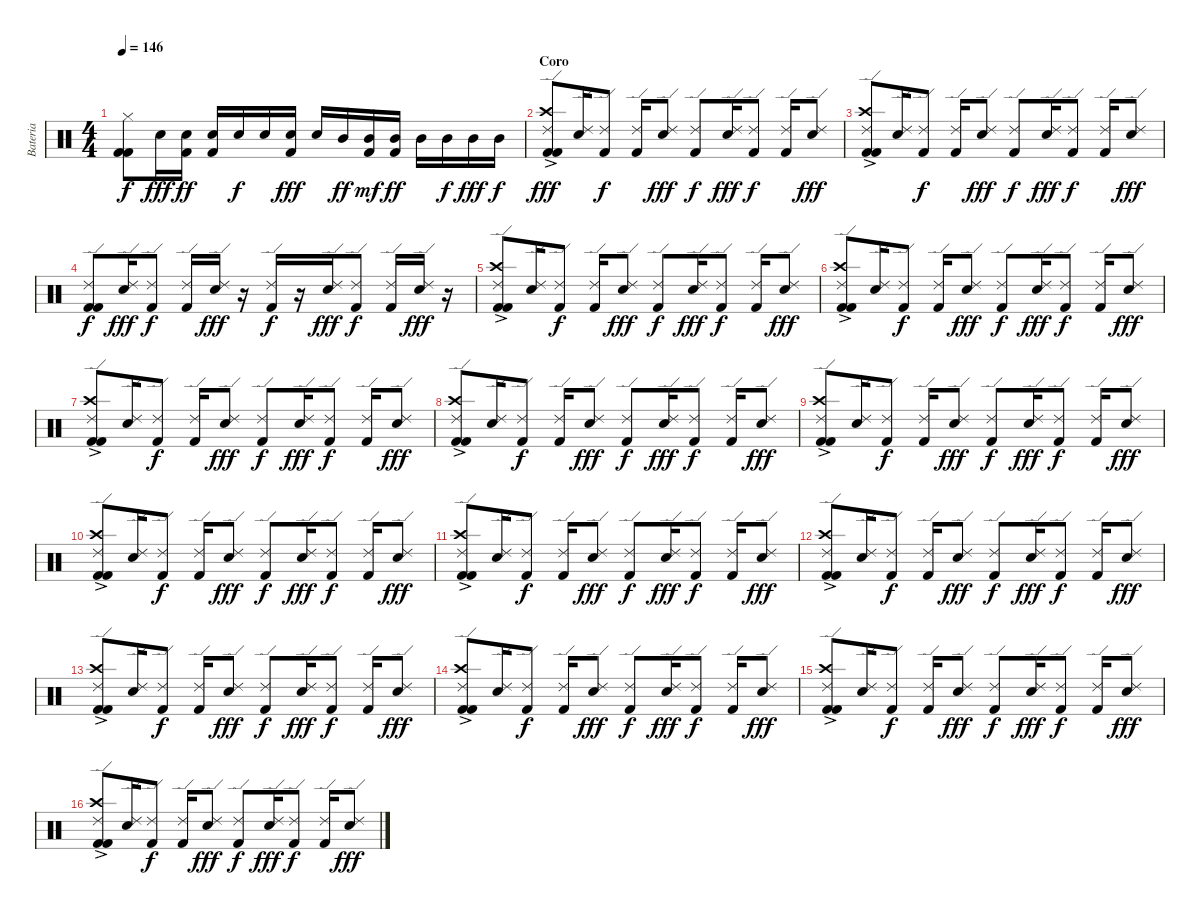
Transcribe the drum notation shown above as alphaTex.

\track ("Bateria" "Bateria") {instrument percussion}
\staff {score}
\articulation defaults
\ts (4 4)
\tempo 146
\clef neutral
\ks c
("Hi-Hat (closed)" "Kick (hit) 2" "Kick (hit) 2").8{dy f} "Electric Snare (hit)".16{dy fff} ("Electric Snare (hit)" "Kick (hit) 2").16{dy ff} ("Electric Snare (hit)" "Kick (hit) 2").16 "Electric Snare (hit)".16{dy f} "Electric Snare (hit)".16 ("Electric Snare (hit)" "Kick (hit) 2").16{dy fff} "Electric Snare (hit)".16 "Mid Tom (hit)".16{dy ff} ("Mid Tom (hit)" "Kick (hit) 2").16{dy mf} ("Mid Tom (hit)" "Kick (hit) 2").16{dy ff} "Mid Tom (hit)".16 "Mid Tom (hit)".16{dy f} "Mid Tom (hit)".16{dy fff} "Mid Tom (hit)".16{dy f} |
\section ("" "Coro")
("Crash high (hit)"{ac} "Ride (edge) 2" "Kick (hit) 2" "Kick (hit) 2").8{dy fff} ("Ride (edge) 2" "Electric Snare (hit)").16 ("Ride (edge) 2" "Kick (hit) 2").8{dy f} ("Ride (edge) 2" "Kick (hit) 2").16 ("Ride (edge) 2" "Electric Snare (hit)").8{dy fff} ("Ride (edge) 2" "Kick (hit) 2").8{dy f} ("Ride (edge) 2" "Electric Snare (hit)").16{dy fff} ("Ride (edge) 2" "Kick (hit) 2").8{dy f} ("Ride (edge) 2" "Kick (hit) 2").16 ("Ride (edge) 2" "Electric Snare (hit)").8{dy fff} |
("Crash high (hit)"{ac} "Ride (edge) 2" "Kick (hit) 2" "Kick (hit) 2").8 ("Ride (edge) 2" "Electric Snare (hit)").16 ("Ride (edge) 2" "Kick (hit) 2").8{dy f} ("Ride (edge) 2" "Kick (hit) 2").16 ("Ride (edge) 2" "Electric Snare (hit)").8{dy fff} ("Ride (edge) 2" "Kick (hit) 2").8{dy f} ("Ride (edge) 2" "Electric Snare (hit)").16{dy fff} ("Ride (edge) 2" "Kick (hit) 2").8{dy f} ("Ride (edge) 2" "Kick (hit) 2").16 ("Ride (edge) 2" "Electric Snare (hit)").8{dy fff} |
("Ride (edge) 2" "Kick (hit) 2" "Kick (hit) 2").8{dy f} ("Ride (edge) 2" "Electric Snare (hit)").16{dy fff} ("Ride (edge) 2" "Kick (hit) 2").8{dy f} ("Ride (edge) 2" "Kick (hit) 2").16 ("Ride (edge) 2" "Electric Snare (hit)").16{dy fff} r.16 ("Ride (edge) 2" "Kick (hit) 2").16{dy f} r.16 ("Ride (edge) 2" "Electric Snare (hit)").16{dy fff} ("Ride (edge) 2" "Kick (hit) 2").8{dy f} ("Ride (edge) 2" "Kick (hit) 2").16 ("Ride (edge) 2" "Electric Snare (hit)").16{dy fff} r.16 |
("Crash high (hit)"{ac} "Ride (edge) 2" "Kick (hit) 2" "Kick (hit) 2").8 ("Ride (edge) 2" "Electric Snare (hit)").16 ("Ride (edge) 2" "Kick (hit) 2").8{dy f} ("Ride (edge) 2" "Kick (hit) 2").16 ("Ride (edge) 2" "Electric Snare (hit)").8{dy fff} ("Ride (edge) 2" "Kick (hit) 2").8{dy f} ("Ride (edge) 2" "Electric Snare (hit)").16{dy fff} ("Ride (edge) 2" "Kick (hit) 2").8{dy f} ("Ride (edge) 2" "Kick (hit) 2").16 ("Ride (edge) 2" "Electric Snare (hit)").8{dy fff} |
("Crash high (hit)"{ac} "Ride (edge) 2" "Kick (hit) 2" "Kick (hit) 2").8 ("Ride (edge) 2" "Electric Snare (hit)").16 ("Ride (edge) 2" "Kick (hit) 2").8{dy f} ("Ride (edge) 2" "Kick (hit) 2").16 ("Ride (edge) 2" "Electric Snare (hit)").8{dy fff} ("Ride (edge) 2" "Kick (hit) 2").8{dy f} ("Ride (edge) 2" "Electric Snare (hit)").16{dy fff} ("Ride (edge) 2" "Kick (hit) 2").8{dy f} ("Ride (edge) 2" "Kick (hit) 2").16 ("Ride (edge) 2" "Electric Snare (hit)").8{dy fff} |
("Crash high (hit)"{ac} "Ride (edge) 2" "Kick (hit) 2" "Kick (hit) 2").8 ("Ride (edge) 2" "Electric Snare (hit)").16 ("Ride (edge) 2" "Kick (hit) 2").8{dy f} ("Ride (edge) 2" "Kick (hit) 2").16 ("Ride (edge) 2" "Electric Snare (hit)").8{dy fff} ("Ride (edge) 2" "Kick (hit) 2").8{dy f} ("Ride (edge) 2" "Electric Snare (hit)").16{dy fff} ("Ride (edge) 2" "Kick (hit) 2").8{dy f} ("Ride (edge) 2" "Kick (hit) 2").16 ("Ride (edge) 2" "Electric Snare (hit)").8{dy fff} |
("Crash high (hit)"{ac} "Ride (edge) 2" "Kick (hit) 2" "Kick (hit) 2").8 ("Ride (edge) 2" "Electric Snare (hit)").16 ("Ride (edge) 2" "Kick (hit) 2").8{dy f} ("Ride (edge) 2" "Kick (hit) 2").16 ("Ride (edge) 2" "Electric Snare (hit)").8{dy fff} ("Ride (edge) 2" "Kick (hit) 2").8{dy f} ("Ride (edge) 2" "Electric Snare (hit)").16{dy fff} ("Ride (edge) 2" "Kick (hit) 2").8{dy f} ("Ride (edge) 2" "Kick (hit) 2").16 ("Ride (edge) 2" "Electric Snare (hit)").8{dy fff} |
("Crash high (hit)"{ac} "Ride (edge) 2" "Kick (hit) 2" "Kick (hit) 2").8 ("Ride (edge) 2" "Electric Snare (hit)").16 ("Ride (edge) 2" "Kick (hit) 2").8{dy f} ("Ride (edge) 2" "Kick (hit) 2").16 ("Ride (edge) 2" "Electric Snare (hit)").8{dy fff} ("Ride (edge) 2" "Kick (hit) 2").8{dy f} ("Ride (edge) 2" "Electric Snare (hit)").16{dy fff} ("Ride (edge) 2" "Kick (hit) 2").8{dy f} ("Ride (edge) 2" "Kick (hit) 2").16 ("Ride (edge) 2" "Electric Snare (hit)").8{dy fff} |
("Crash high (hit)"{ac} "Ride (edge) 2" "Kick (hit) 2" "Kick (hit) 2").8 ("Ride (edge) 2" "Electric Snare (hit)").16 ("Ride (edge) 2" "Kick (hit) 2").8{dy f} ("Ride (edge) 2" "Kick (hit) 2").16 ("Ride (edge) 2" "Electric Snare (hit)").8{dy fff} ("Ride (edge) 2" "Kick (hit) 2").8{dy f} ("Ride (edge) 2" "Electric Snare (hit)").16{dy fff} ("Ride (edge) 2" "Kick (hit) 2").8{dy f} ("Ride (edge) 2" "Kick (hit) 2").16 ("Ride (edge) 2" "Electric Snare (hit)").8{dy fff} |
("Crash high (hit)"{ac} "Ride (edge) 2" "Kick (hit) 2" "Kick (hit) 2").8 ("Ride (edge) 2" "Electric Snare (hit)").16 ("Ride (edge) 2" "Kick (hit) 2").8{dy f} ("Ride (edge) 2" "Kick (hit) 2").16 ("Ride (edge) 2" "Electric Snare (hit)").8{dy fff} ("Ride (edge) 2" "Kick (hit) 2").8{dy f} ("Ride (edge) 2" "Electric Snare (hit)").16{dy fff} ("Ride (edge) 2" "Kick (hit) 2").8{dy f} ("Ride (edge) 2" "Kick (hit) 2").16 ("Ride (edge) 2" "Electric Snare (hit)").8{dy fff} |
("Crash high (hit)"{ac} "Ride (edge) 2" "Kick (hit) 2" "Kick (hit) 2").8 ("Ride (edge) 2" "Electric Snare (hit)").16 ("Ride (edge) 2" "Kick (hit) 2").8{dy f} ("Ride (edge) 2" "Kick (hit) 2").16 ("Ride (edge) 2" "Electric Snare (hit)").8{dy fff} ("Ride (edge) 2" "Kick (hit) 2").8{dy f} ("Ride (edge) 2" "Electric Snare (hit)").16{dy fff} ("Ride (edge) 2" "Kick (hit) 2").8{dy f} ("Ride (edge) 2" "Kick (hit) 2").16 ("Ride (edge) 2" "Electric Snare (hit)").8{dy fff} |
("Crash high (hit)"{ac} "Ride (edge) 2" "Kick (hit) 2" "Kick (hit) 2").8 ("Ride (edge) 2" "Electric Snare (hit)").16 ("Ride (edge) 2" "Kick (hit) 2").8{dy f} ("Ride (edge) 2" "Kick (hit) 2").16 ("Ride (edge) 2" "Electric Snare (hit)").8{dy fff} ("Ride (edge) 2" "Kick (hit) 2").8{dy f} ("Ride (edge) 2" "Electric Snare (hit)").16{dy fff} ("Ride (edge) 2" "Kick (hit) 2").8{dy f} ("Ride (edge) 2" "Kick (hit) 2").16 ("Ride (edge) 2" "Electric Snare (hit)").8{dy fff} |
("Crash high (hit)"{ac} "Ride (edge) 2" "Kick (hit) 2" "Kick (hit) 2").8 ("Ride (edge) 2" "Electric Snare (hit)").16 ("Ride (edge) 2" "Kick (hit) 2").8{dy f} ("Ride (edge) 2" "Kick (hit) 2").16 ("Ride (edge) 2" "Electric Snare (hit)").8{dy fff} ("Ride (edge) 2" "Kick (hit) 2").8{dy f} ("Ride (edge) 2" "Electric Snare (hit)").16{dy fff} ("Ride (edge) 2" "Kick (hit) 2").8{dy f} ("Ride (edge) 2" "Kick (hit) 2").16 ("Ride (edge) 2" "Electric Snare (hit)").8{dy fff} |
("Crash high (hit)"{ac} "Ride (edge) 2" "Kick (hit) 2" "Kick (hit) 2").8 ("Ride (edge) 2" "Electric Snare (hit)").16 ("Ride (edge) 2" "Kick (hit) 2").8{dy f} ("Ride (edge) 2" "Kick (hit) 2").16 ("Ride (edge) 2" "Electric Snare (hit)").8{dy fff} ("Ride (edge) 2" "Kick (hit) 2").8{dy f} ("Ride (edge) 2" "Electric Snare (hit)").16{dy fff} ("Ride (edge) 2" "Kick (hit) 2").8{dy f} ("Ride (edge) 2" "Kick (hit) 2").16 ("Ride (edge) 2" "Electric Snare (hit)").8{dy fff} |
("Crash high (hit)"{ac} "Ride (edge) 2" "Kick (hit) 2" "Kick (hit) 2").8 ("Ride (edge) 2" "Electric Snare (hit)").16 ("Ride (edge) 2" "Kick (hit) 2").8{dy f} ("Ride (edge) 2" "Kick (hit) 2").16 ("Ride (edge) 2" "Electric Snare (hit)").8{dy fff} ("Ride (edge) 2" "Kick (hit) 2").8{dy f} ("Ride (edge) 2" "Electric Snare (hit)").16{dy fff} ("Ride (edge) 2" "Kick (hit) 2").8{dy f} ("Ride (edge) 2" "Kick (hit) 2").16 ("Ride (edge) 2" "Electric Snare (hit)").8{dy fff}
